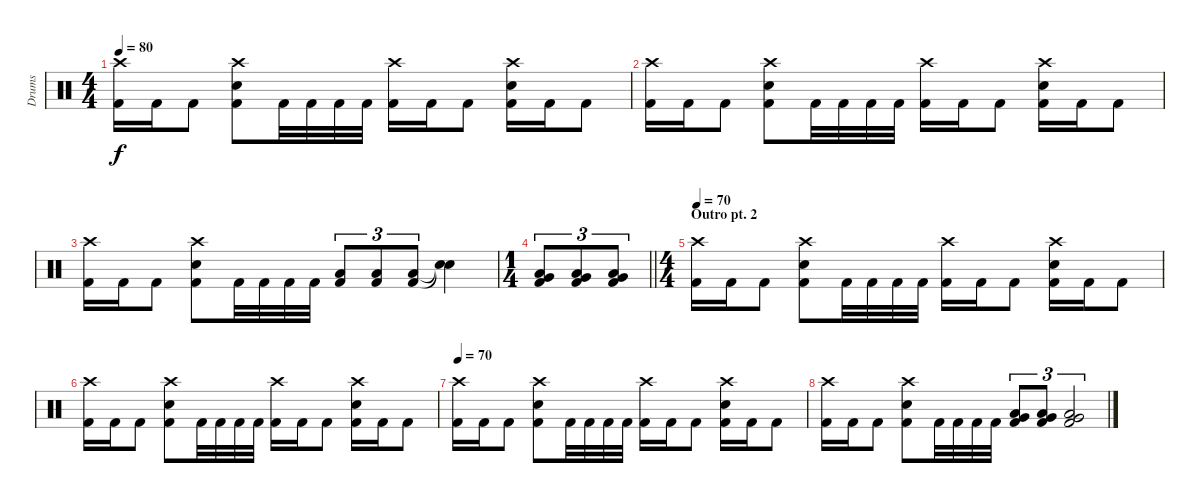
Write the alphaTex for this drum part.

\track ("Drums" "Drums") {instrument percussion}
\staff {score}
\articulation defaults
\ts (4 4)
\tempo 80
\clef neutral
\ks c
("Crash high (hit)" "Kick (hit) 2").16{dy f} "Kick (hit) 2".16 "Kick (hit) 2".8 ("Crash high (hit)" "Electric Snare (hit)" "Kick (hit) 2").8 "Kick (hit) 2".32 "Kick (hit) 2".32 "Kick (hit) 2".32 "Kick (hit) 2".32 ("Crash high (hit)" "Kick (hit) 2").16 "Kick (hit) 2".16 "Kick (hit) 2".8 ("Crash high (hit)" "Electric Snare (hit)" "Kick (hit) 2").16 "Kick (hit) 2".16 "Kick (hit) 2".8 |
("Crash high (hit)" "Kick (hit) 2").16 "Kick (hit) 2".16 "Kick (hit) 2".8 ("Crash high (hit)" "Electric Snare (hit)" "Kick (hit) 2").8 "Kick (hit) 2".32 "Kick (hit) 2".32 "Kick (hit) 2".32 "Kick (hit) 2".32 ("Crash high (hit)" "Kick (hit) 2").16 "Kick (hit) 2".16 "Kick (hit) 2".8 ("Crash high (hit)" "Electric Snare (hit)" "Kick (hit) 2").16 "Kick (hit) 2".16 "Kick (hit) 2".8 |
("Crash high (hit)" "Kick (hit) 2").16 "Kick (hit) 2".16 "Kick (hit) 2".8 ("Crash high (hit)" "Electric Snare (hit)" "Kick (hit) 2").8 "Kick (hit) 2".32 "Kick (hit) 2".32 "Kick (hit) 2".32 "Kick (hit) 2".32 ("Low Tom (hit)" "Kick (hit) 2").8{tu (3 2)} ("Low Tom (hit)" "Kick (hit) 2").8{tu (3 2)} ("Low Tom (hit)" "Kick (hit) 2").8{tu (3 2)} ("Snare (hit)"{t} "Snare (hit)"{t}).4 |
\ts (1 4)
\barLineRight lightlight
("Low Tom (hit)" "Very Low Tom (hit)" "Kick (hit) 2").8{tu (3 2)} ("Low Tom (hit)" "Very Low Tom (hit)" "Kick (hit) 2").8{tu (3 2)} ("Low Tom (hit)" "Very Low Tom (hit)" "Kick (hit) 2").8{tu (3 2)} |
\ts (4 4)
\section ("" "Outro pt. 2")
\tempo 70
("Crash high (hit)" "Kick (hit) 2").16 "Kick (hit) 2".16 "Kick (hit) 2".8 ("Crash high (hit)" "Electric Snare (hit)" "Kick (hit) 2").8 "Kick (hit) 2".32 "Kick (hit) 2".32 "Kick (hit) 2".32 "Kick (hit) 2".32 ("Crash high (hit)" "Kick (hit) 2").16 "Kick (hit) 2".16 "Kick (hit) 2".8 ("Crash high (hit)" "Electric Snare (hit)" "Kick (hit) 2").16 "Kick (hit) 2".16 "Kick (hit) 2".8 |
("Crash high (hit)" "Kick (hit) 2").16 "Kick (hit) 2".16 "Kick (hit) 2".8 ("Crash high (hit)" "Electric Snare (hit)" "Kick (hit) 2").8 "Kick (hit) 2".32 "Kick (hit) 2".32 "Kick (hit) 2".32 "Kick (hit) 2".32 ("Crash high (hit)" "Kick (hit) 2").16 "Kick (hit) 2".16 "Kick (hit) 2".8 ("Crash high (hit)" "Electric Snare (hit)" "Kick (hit) 2").16 "Kick (hit) 2".16 "Kick (hit) 2".8 |
\tempo 70
("Crash high (hit)" "Kick (hit) 2").16 "Kick (hit) 2".16 "Kick (hit) 2".8 ("Crash high (hit)" "Electric Snare (hit)" "Kick (hit) 2").8 "Kick (hit) 2".32 "Kick (hit) 2".32 "Kick (hit) 2".32 "Kick (hit) 2".32 ("Crash high (hit)" "Kick (hit) 2").16 "Kick (hit) 2".16 "Kick (hit) 2".8 ("Crash high (hit)" "Electric Snare (hit)" "Kick (hit) 2").16 "Kick (hit) 2".16 "Kick (hit) 2".8 |
("Crash high (hit)" "Kick (hit) 2").16 "Kick (hit) 2".16 "Kick (hit) 2".8 ("Crash high (hit)" "Electric Snare (hit)" "Kick (hit) 2").8 "Kick (hit) 2".32 "Kick (hit) 2".32 "Kick (hit) 2".32 "Kick (hit) 2".32 ("Low Tom (hit)" "Very Low Tom (hit)" "Kick (hit) 2").8{tu (3 2)} ("Low Tom (hit)" "Very Low Tom (hit)" "Kick (hit) 2").8{tu (3 2)} ("Low Tom (hit)" "Very Low Tom (hit)" "Kick (hit) 2").2{tu (3 2)}
